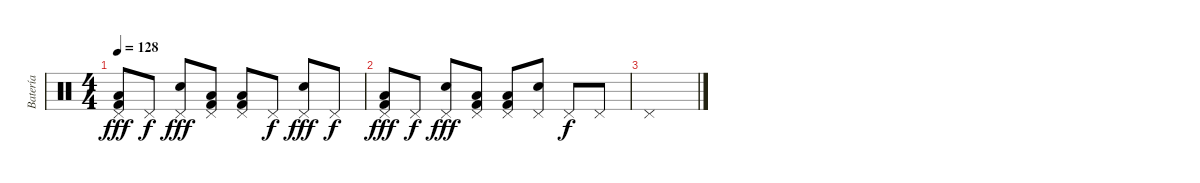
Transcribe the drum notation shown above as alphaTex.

\track ("Batería" "Batería") {instrument percussion}
\staff {score}
\articulation defaults
\ts (4 4)
\tempo 128
\clef neutral
\ks c
("Low Floor Tom (hit)" "Kick (hit) 2" "Pedal Hi-Hat (hit)").8{dy fff} "Pedal Hi-Hat (hit)".8{dy f} ("Electric Snare (hit)" "Pedal Hi-Hat (hit)").8{dy fff} ("Low Floor Tom (hit)" "Kick (hit) 2" "Pedal Hi-Hat (hit)").8 ("Low Floor Tom (hit)" "Kick (hit) 2" "Pedal Hi-Hat (hit)").8 "Pedal Hi-Hat (hit)".8{dy f} ("Electric Snare (hit)" "Pedal Hi-Hat (hit)").8{dy fff} "Pedal Hi-Hat (hit)".8{dy f} |
("Low Floor Tom (hit)" "Kick (hit) 2" "Pedal Hi-Hat (hit)").8{dy fff} "Pedal Hi-Hat (hit)".8{dy f} ("Electric Snare (hit)" "Pedal Hi-Hat (hit)").8{dy fff} ("Low Floor Tom (hit)" "Kick (hit) 2" "Pedal Hi-Hat (hit)").8 ("Low Floor Tom (hit)" "Kick (hit) 2" "Pedal Hi-Hat (hit)").8 ("Electric Snare (hit)" "Pedal Hi-Hat (hit)").8 "Pedal Hi-Hat (hit)".8{dy f} "Pedal Hi-Hat (hit)".8 |
"Pedal Hi-Hat (hit)".1
